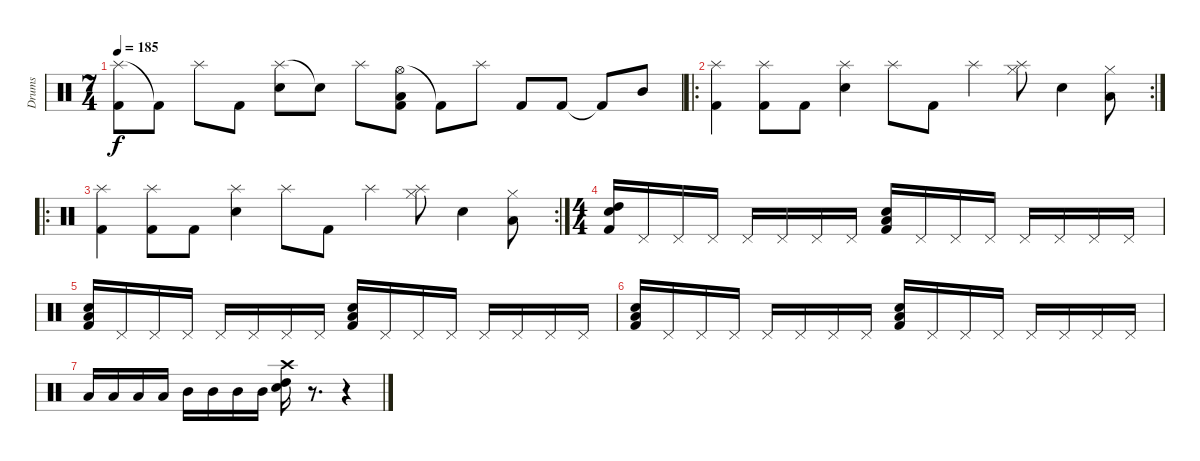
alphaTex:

\track ("Drums" "Drums") {instrument percussion}
\staff {score}
\articulation defaults
\ts (7 4)
\tempo 185
\clef neutral
\ks c
("Splash (hit)" "Kick (hit) 2").8{dy f} "Kick (hit) 2"{t}.8 "Splash (hit)".8 "Kick (hit) 2".8 ("Splash (hit)" "Electric Snare (hit)").8 "Electric Snare (hit)"{t}.8 "Splash (hit)".8 ("Hi-Hat (open)" "Low Tom (hit)" "Kick (hit) 2").8 "Kick (hit) 2"{t}.8 "Splash (hit)".8 "Kick (hit) 2".8 "Kick (hit) 2".8 "Kick (hit) 2"{t}.8 "Mid Tom (hit)".8 |
\ro
\rc 2
("Kick (hit) 2" "Splash (hit)").4 ("Splash (hit)" "Kick (hit) 2").8 "Kick (hit) 2".8 ("Splash (hit)" "Electric Snare (hit)").4 "Splash (hit)".8 "Kick (hit) 2".8 "Splash (hit)".4 ("Splash (hit)" "Hi-Hat (closed)").8 "Electric Snare (hit)".4 ("Hi-Hat (closed)" "Low Tom (hit)").8 |
\ro
\rc 2
("Kick (hit) 2" "Splash (hit)").4 ("Splash (hit)" "Kick (hit) 2").8 "Kick (hit) 2".8 ("Splash (hit)" "Electric Snare (hit)").4 "Splash (hit)".8 "Kick (hit) 2".8 "Splash (hit)".4 ("Splash (hit)" "Hi-Hat (closed)").8 "Electric Snare (hit)".4 ("Hi-Hat (closed)" "Low Tom (hit)").8 |
\ts (4 4)
("Kick (hit) 2" "High Tom (hit)" "Electric Snare (hit)").16 "Pedal Hi-Hat (hit)".16 "Pedal Hi-Hat (hit)".16 "Pedal Hi-Hat (hit)".16 "Pedal Hi-Hat (hit)".16 "Pedal Hi-Hat (hit)".16 "Pedal Hi-Hat (hit)".16 "Pedal Hi-Hat (hit)".16 ("Low Tom (hit)" "Electric Snare (hit)" "Kick (hit) 2").16 "Pedal Hi-Hat (hit)".16 "Pedal Hi-Hat (hit)".16 "Pedal Hi-Hat (hit)".16 "Pedal Hi-Hat (hit)".16 "Pedal Hi-Hat (hit)".16 "Pedal Hi-Hat (hit)".16 "Pedal Hi-Hat (hit)".16 |
("Low Tom (hit)" "Electric Snare (hit)" "Kick (hit) 2").16 "Pedal Hi-Hat (hit)".16 "Pedal Hi-Hat (hit)".16 "Pedal Hi-Hat (hit)".16 "Pedal Hi-Hat (hit)".16 "Pedal Hi-Hat (hit)".16 "Pedal Hi-Hat (hit)".16 "Pedal Hi-Hat (hit)".16 ("Low Tom (hit)" "Electric Snare (hit)" "Kick (hit) 2").16 "Pedal Hi-Hat (hit)".16 "Pedal Hi-Hat (hit)".16 "Pedal Hi-Hat (hit)".16 "Pedal Hi-Hat (hit)".16 "Pedal Hi-Hat (hit)".16 "Pedal Hi-Hat (hit)".16 "Pedal Hi-Hat (hit)".16 |
("Low Tom (hit)" "Electric Snare (hit)" "Kick (hit) 2").16 "Pedal Hi-Hat (hit)".16 "Pedal Hi-Hat (hit)".16 "Pedal Hi-Hat (hit)".16 "Pedal Hi-Hat (hit)".16 "Pedal Hi-Hat (hit)".16 "Pedal Hi-Hat (hit)".16 "Pedal Hi-Hat (hit)".16 ("Low Tom (hit)" "Electric Snare (hit)" "Kick (hit) 2").16 "Pedal Hi-Hat (hit)".16 "Pedal Hi-Hat (hit)".16 "Pedal Hi-Hat (hit)".16 "Pedal Hi-Hat (hit)".16 "Pedal Hi-Hat (hit)".16 "Pedal Hi-Hat (hit)".16 "Pedal Hi-Hat (hit)".16 |
"Low Tom (hit)".16 "Low Tom (hit)".16 "Low Tom (hit)".16 "Low Tom (hit)".16 "Mid Tom (hit)".16 "Mid Tom (hit)".16 "Mid Tom (hit)".16 "Mid Tom (hit)".16 ("Electric Snare (hit)" "Crash high (hit)" "High Tom (hit)").16 r.8{d} r.4
